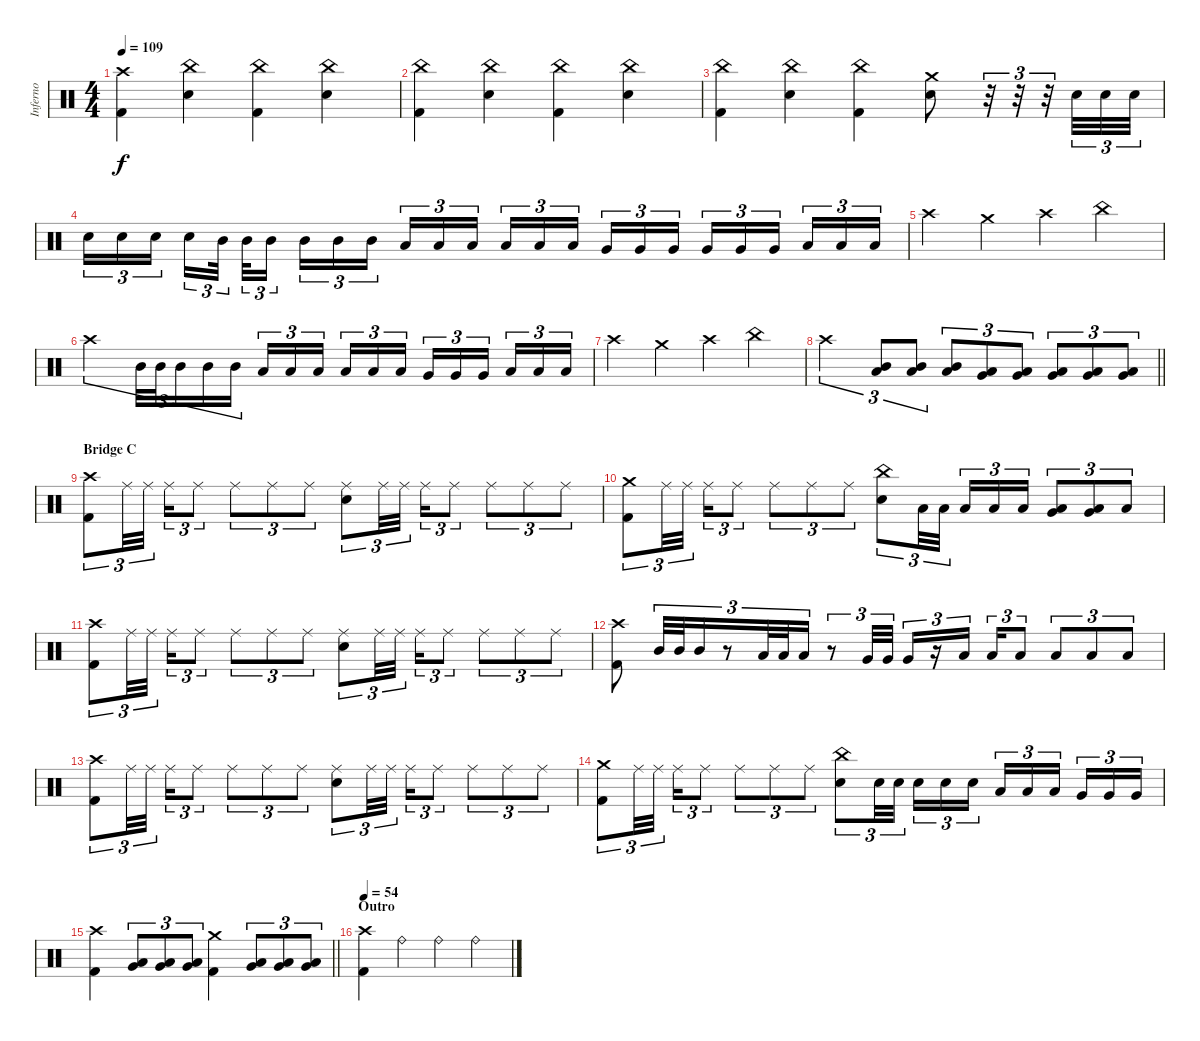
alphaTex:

\track ("Inferno" "Inferno") {instrument percussion}
\staff {score}
\articulation defaults
\ts (4 4)
\tempo 109
\clef neutral
\ks c
("Crash high (hit)" "Kick (hit) 2").4{dy f} ("China (hit)" "Snare (hit) 2").4 ("China (hit)" "Kick (hit) 2").4 ("China (hit)" "Snare (hit) 2").4 |
("China (hit)" "Kick (hit) 2").4 ("China (hit)" "Snare (hit) 2").4 ("China (hit)" "Kick (hit) 2").4 ("China (hit)" "Snare (hit) 2").4 |
("China (hit)" "Kick (hit) 2").4 ("China (hit)" "Snare (hit) 2").4 ("China (hit)" "Kick (hit) 2").4 ("Crash medium (hit)" "Snare (hit) 2").8 r.32{tu (3 2)} r.32{tu (3 2)} r.32{tu (3 2)} "Snare (hit) 2".32{tu (3 2)} "Snare (hit) 2".32{tu (3 2)} "Snare (hit) 2".32{tu (3 2)} |
"Snare (hit) 2".16{tu (3 2)} "Snare (hit) 2".16{tu (3 2)} "Snare (hit) 2".16{tu (3 2) beam splitsecondary} "Snare (hit) 2".16{tu (3 2)} "Mid Tom (hit)".32{tu (3 2) beam splitsecondary} "Mid Tom (hit)".32{tu (3 2)} "Mid Tom (hit)".16{tu (3 2)} "Mid Tom (hit)".16{tu (3 2)} "Mid Tom (hit)".16{tu (3 2)} "Mid Tom (hit)".16{tu (3 2) beam splitsecondary} "Low Tom (hit)".16{tu (3 2)} "Low Tom (hit)".16{tu (3 2)} "Low Tom (hit)".16{tu (3 2)} "Low Tom (hit)".16{tu (3 2)} "Low Tom (hit)".16{tu (3 2)} "Low Tom (hit)".16{tu (3 2) beam splitsecondary} "Very Low Tom (hit)".16{tu (3 2)} "Very Low Tom (hit)".16{tu (3 2)} "Very Low Tom (hit)".16{tu (3 2)} "Very Low Tom (hit)".16{tu (3 2)} "Very Low Tom (hit)".16{tu (3 2)} "Very Low Tom (hit)".16{tu (3 2) beam splitsecondary} "Low Floor Tom (hit)".16{tu (3 2)} "Low Floor Tom (hit)".16{tu (3 2)} "Low Floor Tom (hit)".16{tu (3 2)} |
"Crash high (hit)".4 "Crash medium (hit)".4 "Crash high (hit)".4 "China (hit)".4 |
"Crash high (hit)".2{tu (3 2)} "Mid Tom (hit)".32{tu (3 2)} "Mid Tom (hit)".32{tu (3 2)} "Mid Tom (hit)".16{tu (3 2)} "Mid Tom (hit)".16{tu (3 2)} "Mid Tom (hit)".16{tu (3 2)} "Low Tom (hit)".16{tu (3 2)} "Low Tom (hit)".16{tu (3 2)} "Low Tom (hit)".16{tu (3 2) beam splitsecondary} "Low Tom (hit)".16{tu (3 2)} "Low Tom (hit)".16{tu (3 2)} "Low Tom (hit)".16{tu (3 2)} "Very Low Tom (hit)".16{tu (3 2)} "Very Low Tom (hit)".16{tu (3 2)} "Very Low Tom (hit)".16{tu (3 2) beam splitsecondary} "Low Floor Tom (hit)".16{tu (3 2)} "Low Floor Tom (hit)".16{tu (3 2)} "Low Floor Tom (hit)".16{tu (3 2)} |
"Crash high (hit)".4 "Crash medium (hit)".4 "Crash high (hit)".4 "China (hit)".4 |
\barLineRight lightlight "Crash high (hit)".2{tu (3 2)}
("Mid Tom (hit)" "Low Tom (hit)").8{tu (3 2)} ("Mid Tom (hit)" "Low Tom (hit)").8{tu (3 2)} ("Mid Tom (hit)" "Low Tom (hit)").8{tu (3 2)} ("Low Tom (hit)" "Very Low Tom (hit)").8{tu (3 2)} ("Low Tom (hit)" "Very Low Tom (hit)").8{tu (3 2)} ("Low Tom (hit)" "Very Low Tom (hit)").8{tu (3 2)} ("Very Low Tom (hit)" "Low Floor Tom (hit)").8{tu (3 2)} ("Very Low Tom (hit)" "Low Floor Tom (hit)").8{tu (3 2)} |
\section ("" "Bridge C")
("Crash high (hit)" "Kick (hit) 2").8{tu (3 2)} "Ride (middle)".32{tu (3 2)} "Ride (middle)".32{tu (3 2) beam splitsecondary} "Ride (middle)".16{tu (3 2)} "Ride (middle)".8{tu (3 2)} "Ride (middle)".8{tu (3 2)} "Ride (middle)".8{tu (3 2)} "Ride (middle)".8{tu (3 2)} ("Ride (middle)" "Snare (hit) 2").8{tu (3 2)} "Ride (middle)".32{tu (3 2)} "Ride (middle)".32{tu (3 2) beam splitsecondary} "Ride (middle)".16{tu (3 2)} "Ride (middle)".8{tu (3 2)} "Ride (middle)".8{tu (3 2)} "Ride (middle)".8{tu (3 2)} "Ride (middle)".8{tu (3 2)} |
("Crash medium (hit)" "Kick (hit) 2").8{tu (3 2)} "Ride (middle)".32{tu (3 2)} "Ride (middle)".32{tu (3 2) beam splitsecondary} "Ride (middle)".16{tu (3 2)} "Ride (middle)".8{tu (3 2)} "Ride (middle)".8{tu (3 2)} "Ride (middle)".8{tu (3 2)} "Ride (middle)".8{tu (3 2)} ("China (hit)" "Snare (hit) 2").8{tu (3 2)} "Low Tom (hit)".32{tu (3 2)} "Low Tom (hit)".32{tu (3 2) beam splitsecondary} "Low Tom (hit)".16{tu (3 2)} "Low Tom (hit)".16{tu (3 2)} "Low Tom (hit)".16{tu (3 2)} ("Very Low Tom (hit)" "Low Floor Tom (hit)").8{tu (3 2)} ("Very Low Tom (hit)" "Low Floor Tom (hit)").8{tu (3 2)} "Low Floor Tom (hit)".8{tu (3 2)} |
("Crash high (hit)" "Kick (hit) 2").8{tu (3 2)} "Ride (middle)".32{tu (3 2)} "Ride (middle)".32{tu (3 2) beam splitsecondary} "Ride (middle)".16{tu (3 2)} "Ride (middle)".8{tu (3 2)} "Ride (middle)".8{tu (3 2)} "Ride (middle)".8{tu (3 2)} "Ride (middle)".8{tu (3 2)} ("Ride (middle)" "Snare (hit) 2").8{tu (3 2)} "Ride (middle)".32{tu (3 2)} "Ride (middle)".32{tu (3 2) beam splitsecondary} "Ride (middle)".16{tu (3 2)} "Ride (middle)".8{tu (3 2)} "Ride (middle)".8{tu (3 2)} "Ride (middle)".8{tu (3 2)} "Ride (middle)".8{tu (3 2)} |
("Crash high (hit)" "Kick (hit) 2").8 "Mid Tom (hit)".32{tu (3 2)} "Mid Tom (hit)".32{tu (3 2)} "Mid Tom (hit)".16{tu (3 2)} r.8{tu (3 2)} "Low Tom (hit)".32{tu (3 2)} "Low Tom (hit)".32{tu (3 2)} "Low Tom (hit)".16{tu (3 2)} r.8{tu (3 2)} "Very Low Tom (hit)".32{tu (3 2)} "Very Low Tom (hit)".32{tu (3 2)} "Very Low Tom (hit)".16{tu (3 2)} r.16{tu (3 2)} "Low Floor Tom (hit)".16{tu (3 2) beam splitsecondary} "Low Floor Tom (hit)".16{tu (3 2)} "Low Floor Tom (hit)".8{tu (3 2)} "Low Floor Tom (hit)".8{tu (3 2)} "Low Floor Tom (hit)".8{tu (3 2)} "Low Floor Tom (hit)".8{tu (3 2)} |
("Crash high (hit)" "Kick (hit) 2").8{tu (3 2)} "Ride (middle)".32{tu (3 2)} "Ride (middle)".32{tu (3 2) beam splitsecondary} "Ride (middle)".16{tu (3 2)} "Ride (middle)".8{tu (3 2)} "Ride (middle)".8{tu (3 2)} "Ride (middle)".8{tu (3 2)} "Ride (middle)".8{tu (3 2)} ("Ride (middle)" "Snare (hit) 2").8{tu (3 2)} "Ride (middle)".32{tu (3 2)} "Ride (middle)".32{tu (3 2) beam splitsecondary} "Ride (middle)".16{tu (3 2)} "Ride (middle)".8{tu (3 2)} "Ride (middle)".8{tu (3 2)} "Ride (middle)".8{tu (3 2)} "Ride (middle)".8{tu (3 2)} |
("Crash medium (hit)" "Kick (hit) 2").8{tu (3 2)} "Ride (middle)".32{tu (3 2)} "Ride (middle)".32{tu (3 2) beam splitsecondary} "Ride (middle)".16{tu (3 2)} "Ride (middle)".8{tu (3 2)} "Ride (middle)".8{tu (3 2)} "Ride (middle)".8{tu (3 2)} "Ride (middle)".8{tu (3 2)} ("China (hit)" "Snare (hit) 2").8{tu (3 2)} "Snare (hit) 2".32{tu (3 2)} "Snare (hit) 2".32{tu (3 2) beam splitsecondary} "Snare (hit) 2".16{tu (3 2)} "Snare (hit) 2".16{tu (3 2)} "Snare (hit) 2".16{tu (3 2)} "Low Tom (hit)".16{tu (3 2)} "Low Tom (hit)".16{tu (3 2)} "Low Tom (hit)".16{tu (3 2) beam splitsecondary} "Very Low Tom (hit)".16{tu (3 2)} "Very Low Tom (hit)".16{tu (3 2)} "Very Low Tom (hit)".16{tu (3 2)} |
\barLineRight lightlight
("Crash high (hit)" "Kick (hit) 2").4 ("Low Tom (hit)" "Very Low Tom (hit)").8{tu (3 2)} ("Low Tom (hit)" "Very Low Tom (hit)").8{tu (3 2)} ("Low Tom (hit)" "Very Low Tom (hit)").8{tu (3 2)} ("Crash medium (hit)" "Kick (hit) 2").4 ("Very Low Tom (hit)" "Low Floor Tom (hit)").8{tu (3 2)} ("Very Low Tom (hit)" "Low Floor Tom (hit)").8{tu (3 2)} ("Very Low Tom (hit)" "Low Floor Tom (hit)").8{tu (3 2)} |
\section ("" "Outro")
\tempo 54
("Crash high (hit)" "Kick (hit) 2").4 "Ride (bell)".4 "Ride (bell)".4 "Ride (bell)".4
